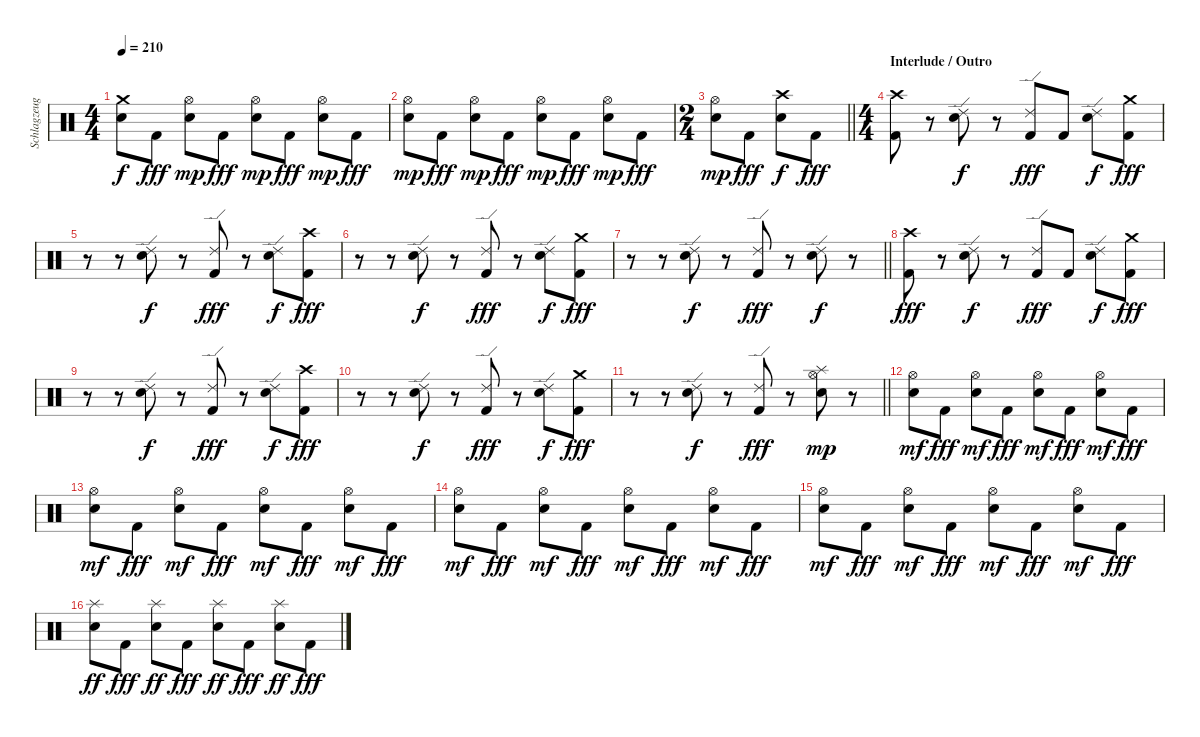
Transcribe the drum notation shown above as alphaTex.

\track ("Schlagzeug" "Schlagzeug") {instrument percussion}
\staff {score}
\articulation defaults
\ts (4 4)
\tempo 210
\clef neutral
\ks c
("Crash medium (hit)" "Snare (hit) 2").8{dy f} "Kick (hit) 2".8{dy fff} ("Hi-Hat (open)" "Snare (hit) 2").8{dy mp} "Kick (hit) 2".8{dy fff} ("Hi-Hat (open)" "Snare (hit) 2").8{dy mp} "Kick (hit) 2".8{dy fff} ("Hi-Hat (open)" "Snare (hit) 2").8{dy mp} "Kick (hit) 2".8{dy fff} |
("Hi-Hat (open)" "Snare (hit) 2").8{dy mp} "Kick (hit) 2".8{dy fff} ("Hi-Hat (open)" "Snare (hit) 2").8{dy mp} "Kick (hit) 2".8{dy fff} ("Hi-Hat (open)" "Snare (hit) 2").8{dy mp} "Kick (hit) 2".8{dy fff} ("Hi-Hat (open)" "Snare (hit) 2").8{dy mp} "Kick (hit) 2".8{dy fff} |
\ts (2 4)
\barLineRight lightlight
("Hi-Hat (open)" "Snare (hit) 2").8{dy mp} "Kick (hit) 2".8{dy fff} ("Crash high (hit)" "Snare (hit) 2").8{dy f} "Kick (hit) 2".8{dy fff} |
\ts (4 4)
\section ("" "Interlude / Outro")
("Crash high (hit)" "Kick (hit) 2").8 r.8 ("Ride (edge) 2" "Snare (hit) 2").8{dy f} r.8 ("Ride (edge) 2" "Kick (hit) 2").8{dy fff} "Kick (hit) 2".8 ("Ride (edge) 2" "Snare (hit) 2").8{dy f} ("Crash medium (hit)" "Kick (hit) 2").8{dy fff} |
r.8 r.8 ("Ride (edge) 2" "Snare (hit) 2").8{dy f} r.8 ("Ride (edge) 2" "Kick (hit) 2").8{dy fff} r.8 ("Ride (edge) 2" "Snare (hit) 2").8{dy f} ("Crash high (hit)" "Kick (hit) 2").8{dy fff} |
r.8 r.8 ("Ride (edge) 2" "Snare (hit) 2").8{dy f} r.8 ("Ride (edge) 2" "Kick (hit) 2").8{dy fff} r.8 ("Ride (edge) 2" "Snare (hit) 2").8{dy f} ("Crash medium (hit)" "Kick (hit) 2").8{dy fff} |
\barLineRight lightlight
r.8 r.8 ("Ride (edge) 2" "Snare (hit) 2").8{dy f} r.8 ("Ride (edge) 2" "Kick (hit) 2").8{dy fff} r.8 ("Ride (edge) 2" "Snare (hit) 2").8{dy f} r.8 |
("Crash high (hit)" "Kick (hit) 2").8{dy fff} r.8 ("Ride (edge) 2" "Snare (hit) 2").8{dy f} r.8 ("Ride (edge) 2" "Kick (hit) 2").8{dy fff} "Kick (hit) 2".8 ("Ride (edge) 2" "Snare (hit) 2").8{dy f} ("Crash medium (hit)" "Kick (hit) 2").8{dy fff} |
r.8 r.8 ("Ride (edge) 2" "Snare (hit) 2").8{dy f} r.8 ("Ride (edge) 2" "Kick (hit) 2").8{dy fff} r.8 ("Ride (edge) 2" "Snare (hit) 2").8{dy f} ("Crash high (hit)" "Kick (hit) 2").8{dy fff} |
r.8 r.8 ("Ride (edge) 2" "Snare (hit) 2").8{dy f} r.8 ("Ride (edge) 2" "Kick (hit) 2").8{dy fff} r.8 ("Ride (edge) 2" "Snare (hit) 2").8{dy f} ("Crash medium (hit)" "Kick (hit) 2").8{dy fff} |
\barLineRight lightlight
r.8 r.8 ("Ride (edge) 2" "Snare (hit) 2").8{dy f} r.8 ("Ride (edge) 2" "Kick (hit) 2").8{dy fff} r.8 ("Splash (hit)" "Hi-Hat (open)" "Snare (hit) 2").8{dy mp} r.8 |
("Hi-Hat (open)" "Snare (hit) 2").8{dy mf} "Kick (hit) 2".8{dy fff} ("Hi-Hat (open)" "Snare (hit) 2").8{dy mf} "Kick (hit) 2".8{dy fff} ("Hi-Hat (open)" "Snare (hit) 2").8{dy mf} "Kick (hit) 2".8{dy fff} ("Hi-Hat (open)" "Snare (hit) 2").8{dy mf} "Kick (hit) 2".8{dy fff} |
("Hi-Hat (open)" "Snare (hit) 2").8{dy mf} "Kick (hit) 2".8{dy fff} ("Hi-Hat (open)" "Snare (hit) 2").8{dy mf} "Kick (hit) 2".8{dy fff} ("Hi-Hat (open)" "Snare (hit) 2").8{dy mf} "Kick (hit) 2".8{dy fff} ("Hi-Hat (open)" "Snare (hit) 2").8{dy mf} "Kick (hit) 2".8{dy fff} |
("Hi-Hat (open)" "Snare (hit) 2").8{dy mf} "Kick (hit) 2".8{dy fff} ("Hi-Hat (open)" "Snare (hit) 2").8{dy mf} "Kick (hit) 2".8{dy fff} ("Hi-Hat (open)" "Snare (hit) 2").8{dy mf} "Kick (hit) 2".8{dy fff} ("Hi-Hat (open)" "Snare (hit) 2").8{dy mf} "Kick (hit) 2".8{dy fff} |
("Hi-Hat (open)" "Snare (hit) 2").8{dy mf} "Kick (hit) 2".8{dy fff} ("Hi-Hat (open)" "Snare (hit) 2").8{dy mf} "Kick (hit) 2".8{dy fff} ("Hi-Hat (open)" "Snare (hit) 2").8{dy mf} "Kick (hit) 2".8{dy fff} ("Hi-Hat (open)" "Snare (hit) 2").8{dy mf} "Kick (hit) 2".8{dy fff} |
("Splash (hit)" "Snare (hit) 2").8{dy ff} "Kick (hit) 2".8{dy fff} ("Splash (hit)" "Snare (hit) 2").8{dy ff} "Kick (hit) 2".8{dy fff} ("Splash (hit)" "Snare (hit) 2").8{dy ff} "Kick (hit) 2".8{dy fff} ("Splash (hit)" "Snare (hit) 2").8{dy ff} "Kick (hit) 2".8{dy fff}
